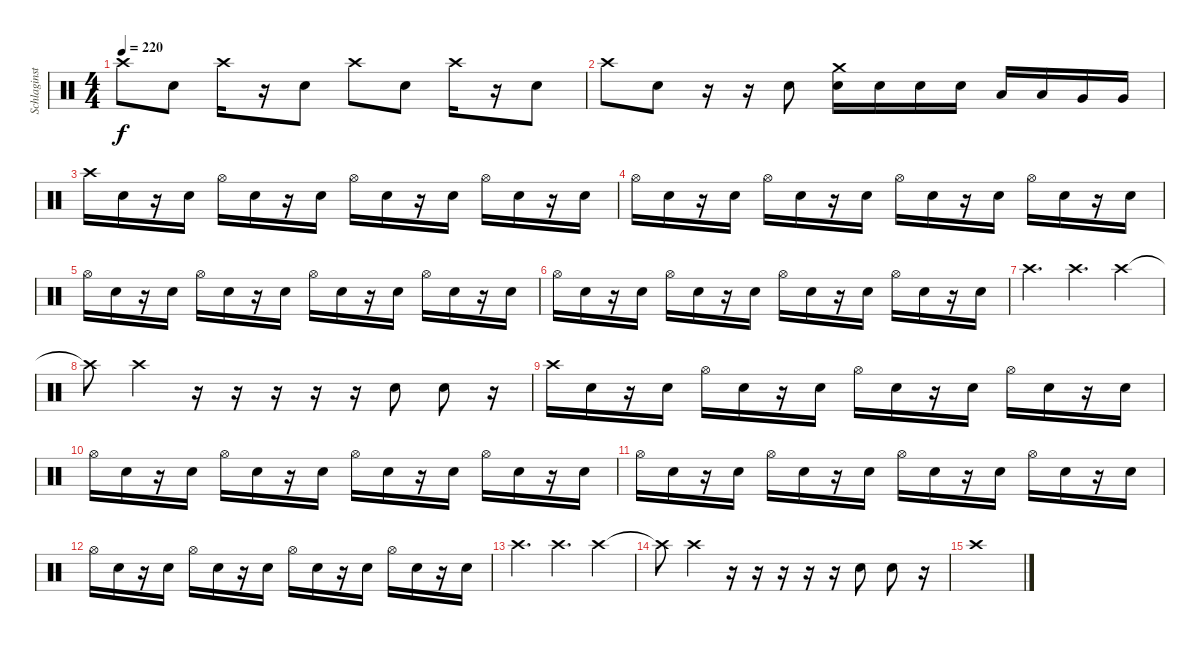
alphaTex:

\track ("Schlaginstrumente - Auswahl" "Schlaginst") {instrument percussion}
\staff {score}
\articulation defaults
\ts (4 4)
\tempo 220
\clef neutral
\ks c "Crash high (hit)".8{dy f} "Electric Snare (hit)".8 "Crash high (hit)".16
r.16 "Electric Snare (hit)".8 "Crash high (hit)".8 "Electric Snare (hit)".8 "Crash high (hit)".16 r.16 "Electric Snare (hit)".8 |
"Crash high (hit)".8 "Electric Snare (hit)".8 r.16 r.16 "Electric Snare (hit)".8 ("Crash medium (hit)" "Electric Snare (hit)").16 "Electric Snare (hit)".16 "Electric Snare (hit)".16 "Electric Snare (hit)".16 "Low Tom (hit)".16 "Low Tom (hit)".16 "Very Low Tom (hit)".16 "Very Low Tom (hit)".16 |
"Crash high (hit)".16 "Electric Snare (hit)".16 r.16 "Electric Snare (hit)".16 "Hi-Hat (open)".16 "Electric Snare (hit)".16 r.16 "Electric Snare (hit)".16 "Hi-Hat (open)".16 "Electric Snare (hit)".16 r.16 "Electric Snare (hit)".16 "Hi-Hat (open)".16 "Electric Snare (hit)".16 r.16 "Electric Snare (hit)".16 |
"Hi-Hat (open)".16 "Electric Snare (hit)".16 r.16 "Electric Snare (hit)".16 "Hi-Hat (open)".16 "Electric Snare (hit)".16 r.16 "Electric Snare (hit)".16 "Hi-Hat (open)".16 "Electric Snare (hit)".16 r.16 "Electric Snare (hit)".16 "Hi-Hat (open)".16 "Electric Snare (hit)".16 r.16 "Electric Snare (hit)".16 |
"Hi-Hat (open)".16 "Electric Snare (hit)".16 r.16 "Electric Snare (hit)".16 "Hi-Hat (open)".16 "Electric Snare (hit)".16 r.16 "Electric Snare (hit)".16 "Hi-Hat (open)".16 "Electric Snare (hit)".16 r.16 "Electric Snare (hit)".16 "Hi-Hat (open)".16 "Electric Snare (hit)".16 r.16 "Electric Snare (hit)".16 |
"Hi-Hat (open)".16 "Electric Snare (hit)".16 r.16 "Electric Snare (hit)".16 "Hi-Hat (open)".16 "Electric Snare (hit)".16 r.16 "Electric Snare (hit)".16 "Hi-Hat (open)".16 "Electric Snare (hit)".16 r.16 "Electric Snare (hit)".16 "Hi-Hat (open)".16 "Electric Snare (hit)".16 r.16 "Electric Snare (hit)".16 |
"Crash high (hit)".4{d} "Crash high (hit)".4{d} "Crash high (hit)".4 |
"Crash high (hit)"{t}.8 "Crash high (hit)".4 r.16 r.16 r.16 r.16 r.16 "Electric Snare (hit)".8 "Electric Snare (hit)".8 r.16 |
"Crash high (hit)".16 "Electric Snare (hit)".16 r.16 "Electric Snare (hit)".16 "Hi-Hat (open)".16 "Electric Snare (hit)".16 r.16 "Electric Snare (hit)".16 "Hi-Hat (open)".16 "Electric Snare (hit)".16 r.16 "Electric Snare (hit)".16 "Hi-Hat (open)".16 "Electric Snare (hit)".16 r.16 "Electric Snare (hit)".16 |
"Hi-Hat (open)".16 "Electric Snare (hit)".16 r.16 "Electric Snare (hit)".16 "Hi-Hat (open)".16 "Electric Snare (hit)".16 r.16 "Electric Snare (hit)".16 "Hi-Hat (open)".16 "Electric Snare (hit)".16 r.16 "Electric Snare (hit)".16 "Hi-Hat (open)".16 "Electric Snare (hit)".16 r.16 "Electric Snare (hit)".16 |
"Hi-Hat (open)".16 "Electric Snare (hit)".16 r.16 "Electric Snare (hit)".16 "Hi-Hat (open)".16 "Electric Snare (hit)".16 r.16 "Electric Snare (hit)".16 "Hi-Hat (open)".16 "Electric Snare (hit)".16 r.16 "Electric Snare (hit)".16 "Hi-Hat (open)".16 "Electric Snare (hit)".16 r.16 "Electric Snare (hit)".16 |
"Hi-Hat (open)".16 "Electric Snare (hit)".16 r.16 "Electric Snare (hit)".16 "Hi-Hat (open)".16 "Electric Snare (hit)".16 r.16 "Electric Snare (hit)".16 "Hi-Hat (open)".16 "Electric Snare (hit)".16 r.16 "Electric Snare (hit)".16 "Hi-Hat (open)".16 "Electric Snare (hit)".16 r.16 "Electric Snare (hit)".16 |
"Crash high (hit)".4{d} "Crash high (hit)".4{d} "Crash high (hit)".4 |
"Crash high (hit)"{t}.8 "Crash high (hit)".4 r.16 r.16 r.16 r.16 r.16 "Electric Snare (hit)".8 "Electric Snare (hit)".8 r.16 |
"Crash high (hit)".1
